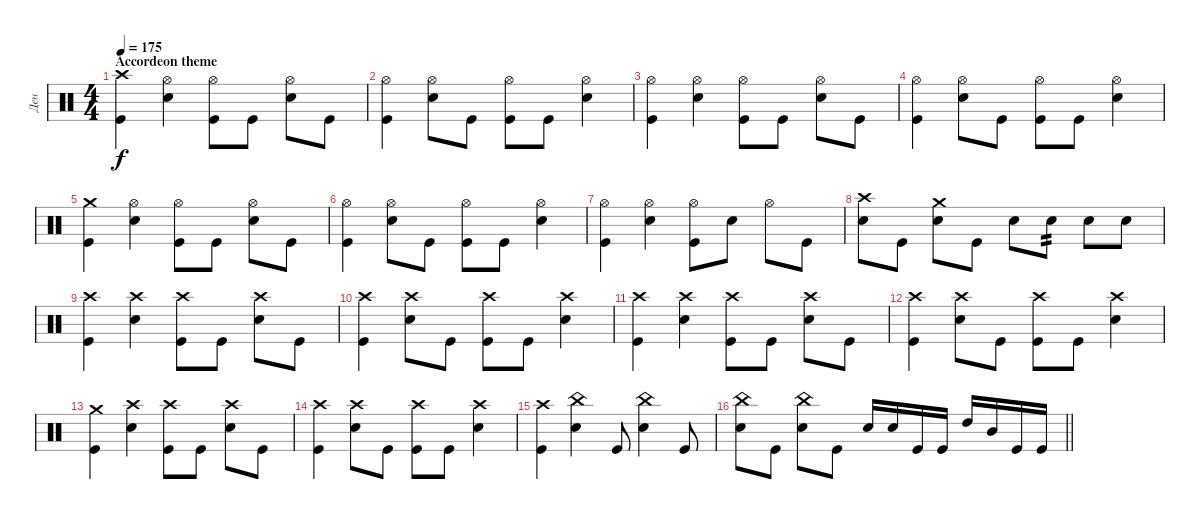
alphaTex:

\track ("Ден" "Ден") {instrument percussion}
\staff {score}
\articulation defaults
\ts (4 4)
\section ("" "Accordeon theme")
\tempo 175
\clef neutral
\ks c
("Crash high (hit)" "Kick (hit)").4{dy f} ("Hi-Hat (open)" "Snare (hit) 2").4 ("Hi-Hat (open)" "Kick (hit)").8 "Kick (hit)".8 ("Hi-Hat (open)" "Snare (hit) 2").8 "Kick (hit)".8 |
("Hi-Hat (open)" "Kick (hit)").4 ("Hi-Hat (open)" "Snare (hit) 2").8 "Kick (hit)".8 ("Hi-Hat (open)" "Kick (hit)").8 "Kick (hit)".8 ("Hi-Hat (open)" "Snare (hit) 2").4 |
("Hi-Hat (open)" "Kick (hit)").4 ("Hi-Hat (open)" "Snare (hit) 2").4 ("Hi-Hat (open)" "Kick (hit)").8 "Kick (hit)".8 ("Hi-Hat (open)" "Snare (hit) 2").8 "Kick (hit)".8 |
("Hi-Hat (open)" "Kick (hit)").4 ("Hi-Hat (open)" "Snare (hit) 2").8 "Kick (hit)".8 ("Hi-Hat (open)" "Kick (hit)").8 "Kick (hit)".8 ("Hi-Hat (open)" "Snare (hit) 2").4 |
("Crash medium (hit)" "Kick (hit)").4 ("Hi-Hat (open)" "Snare (hit) 2").4 ("Hi-Hat (open)" "Kick (hit)").8 "Kick (hit)".8 ("Hi-Hat (open)" "Snare (hit) 2").8 "Kick (hit)".8 |
("Hi-Hat (open)" "Kick (hit)").4 ("Hi-Hat (open)" "Snare (hit) 2").8 "Kick (hit)".8 ("Hi-Hat (open)" "Kick (hit)").8 "Kick (hit)".8 ("Hi-Hat (open)" "Snare (hit) 2").4 |
("Hi-Hat (open)" "Kick (hit)").4 ("Hi-Hat (open)" "Snare (hit) 2").4 ("Hi-Hat (open)" "Kick (hit)").8 "Snare (hit) 2".8 "Hi-Hat (open)".8 "Kick (hit)".8 |
("Crash high (hit)" "Snare (hit) 2").8 "Kick (hit)".8 ("Crash medium (hit)" "Snare (hit) 2").8 "Kick (hit)".8 "Snare (hit) 2".8 "Snare (hit) 2".8{tp 2} "Snare (hit) 2".8 "Snare (hit) 2".8 |
("Crash high (hit)" "Kick (hit)").4 ("Crash high (hit)" "Snare (hit) 2").4 ("Crash high (hit)" "Kick (hit)").8 "Kick (hit)".8 ("Crash high (hit)" "Snare (hit) 2").8 "Kick (hit)".8 |
("Crash high (hit)" "Kick (hit)").4 ("Crash high (hit)" "Snare (hit) 2").8 "Kick (hit)".8 ("Crash high (hit)" "Kick (hit)").8 "Kick (hit)".8 ("Crash high (hit)" "Snare (hit) 2").4 |
("Crash high (hit)" "Kick (hit)").4 ("Crash high (hit)" "Snare (hit) 2").4 ("Crash high (hit)" "Kick (hit)").8 "Kick (hit)".8 ("Crash high (hit)" "Snare (hit) 2").8 "Kick (hit)".8 |
("Crash high (hit)" "Kick (hit)").4 ("Crash high (hit)" "Snare (hit) 2").8 "Kick (hit)".8 ("Crash high (hit)" "Kick (hit)").8 "Kick (hit)".8 ("Crash high (hit)" "Snare (hit) 2").4 |
("Crash medium (hit)" "Kick (hit)").4 ("Crash high (hit)" "Snare (hit) 2").4 ("Crash high (hit)" "Kick (hit)").8 "Kick (hit)".8 ("Crash high (hit)" "Snare (hit) 2").8 "Kick (hit)".8 |
("Crash high (hit)" "Kick (hit)").4 ("Crash high (hit)" "Snare (hit) 2").8 "Kick (hit)".8 ("Crash high (hit)" "Kick (hit)").8 "Kick (hit)".8 ("Crash high (hit)" "Snare (hit) 2").4 |
("Crash high (hit)" "Kick (hit)").4 ("China (hit)" "Snare (hit) 2").4 "Kick (hit)".8 ("China (hit)" "Snare (hit) 2").4 "Kick (hit)".8 |
\barLineRight lightlight
("China (hit)" "Snare (hit) 2").8 "Kick (hit)".8 ("China (hit)" "Snare (hit) 2").8 "Kick (hit)".8 "Snare (hit) 2".16 "Snare (hit) 2".16 "Kick (hit)".16 "Kick (hit)".16 "High Tom (hit)".16 "Mid Tom (hit)".16 "Kick (hit)".16 "Kick (hit)".16
